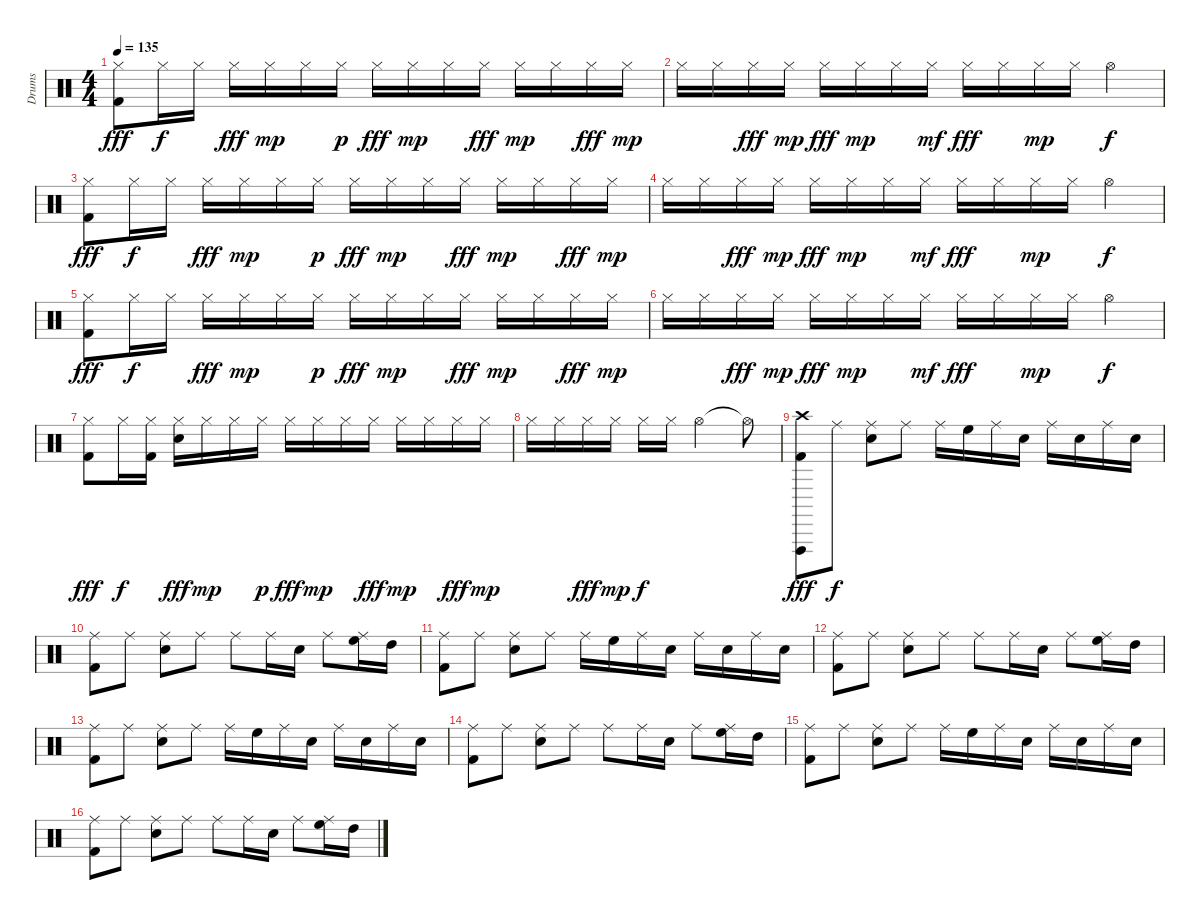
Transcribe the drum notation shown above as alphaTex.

\track ("Drums" "Drums") {instrument percussion}
\staff {score}
\articulation defaults
\ts (4 4)
\tempo 135
\clef neutral
\ks c
("Hi-Hat (closed)" "Kick (hit) 2").8{dy fff} "Hi-Hat (closed)".16{dy f} "Hi-Hat (closed)".16 "Hi-Hat (closed)".16{dy fff} "Hi-Hat (closed)".16{dy mp} "Hi-Hat (closed)".16 "Hi-Hat (closed)".16{dy p} "Hi-Hat (closed)".16{dy fff} "Hi-Hat (closed)".16{dy mp} "Hi-Hat (closed)".16 "Hi-Hat (closed)".16{dy fff} "Hi-Hat (closed)".16{dy mp} "Hi-Hat (closed)".16 "Hi-Hat (closed)".16{dy fff} "Hi-Hat (closed)".16{dy mp} |
"Hi-Hat (closed)".16 "Hi-Hat (closed)".16 "Hi-Hat (closed)".16{dy fff} "Hi-Hat (closed)".16{dy mp} "Hi-Hat (closed)".16{dy fff} "Hi-Hat (closed)".16{dy mp} "Hi-Hat (closed)".16 "Hi-Hat (closed)".16{dy mf} "Hi-Hat (closed)".16{dy fff} "Hi-Hat (closed)".16 "Hi-Hat (closed)".16{dy mp} "Hi-Hat (closed)".16 "Hi-Hat (open)".4{dy f} |
("Hi-Hat (closed)" "Kick (hit) 2").8{dy fff} "Hi-Hat (closed)".16{dy f} "Hi-Hat (closed)".16 "Hi-Hat (closed)".16{dy fff} "Hi-Hat (closed)".16{dy mp} "Hi-Hat (closed)".16 "Hi-Hat (closed)".16{dy p} "Hi-Hat (closed)".16{dy fff} "Hi-Hat (closed)".16{dy mp} "Hi-Hat (closed)".16 "Hi-Hat (closed)".16{dy fff} "Hi-Hat (closed)".16{dy mp} "Hi-Hat (closed)".16 "Hi-Hat (closed)".16{dy fff} "Hi-Hat (closed)".16{dy mp} |
"Hi-Hat (closed)".16 "Hi-Hat (closed)".16 "Hi-Hat (closed)".16{dy fff} "Hi-Hat (closed)".16{dy mp} "Hi-Hat (closed)".16{dy fff} "Hi-Hat (closed)".16{dy mp} "Hi-Hat (closed)".16 "Hi-Hat (closed)".16{dy mf} "Hi-Hat (closed)".16{dy fff} "Hi-Hat (closed)".16 "Hi-Hat (closed)".16{dy mp} "Hi-Hat (closed)".16 "Hi-Hat (open)".4{dy f} |
("Hi-Hat (closed)" "Kick (hit) 2").8{dy fff} "Hi-Hat (closed)".16{dy f} "Hi-Hat (closed)".16 "Hi-Hat (closed)".16{dy fff} "Hi-Hat (closed)".16{dy mp} "Hi-Hat (closed)".16 "Hi-Hat (closed)".16{dy p} "Hi-Hat (closed)".16{dy fff} "Hi-Hat (closed)".16{dy mp} "Hi-Hat (closed)".16 "Hi-Hat (closed)".16{dy fff} "Hi-Hat (closed)".16{dy mp} "Hi-Hat (closed)".16 "Hi-Hat (closed)".16{dy fff} "Hi-Hat (closed)".16{dy mp} |
"Hi-Hat (closed)".16 "Hi-Hat (closed)".16 "Hi-Hat (closed)".16{dy fff} "Hi-Hat (closed)".16{dy mp} "Hi-Hat (closed)".16{dy fff} "Hi-Hat (closed)".16{dy mp} "Hi-Hat (closed)".16 "Hi-Hat (closed)".16{dy mf} "Hi-Hat (closed)".16{dy fff} "Hi-Hat (closed)".16 "Hi-Hat (closed)".16{dy mp} "Hi-Hat (closed)".16 "Hi-Hat (open)".4{dy f} |
("Hi-Hat (closed)" "Kick (hit) 2").8{dy fff} "Hi-Hat (closed)".16{dy f} ("Hi-Hat (closed)" "Kick (hit) 2").16 ("Hi-Hat (closed)" "Electric Snare (hit)").16{dy fff} "Hi-Hat (closed)".16{dy mp} "Hi-Hat (closed)".16 "Hi-Hat (closed)".16{dy p} "Hi-Hat (closed)".16{dy fff} "Hi-Hat (closed)".16{dy mp} "Hi-Hat (closed)".16 "Hi-Hat (closed)".16{dy fff} "Hi-Hat (closed)".16{dy mp} "Hi-Hat (closed)".16 "Hi-Hat (closed)".16{dy fff} "Hi-Hat (closed)".16{dy mp} |
"Hi-Hat (closed)".16 "Hi-Hat (closed)".16 "Hi-Hat (closed)".16{dy fff} "Hi-Hat (closed)".16{dy mp} "Hi-Hat (closed)".16{dy f} "Hi-Hat (closed)".16 "Hi-Hat (open)".2 "Hi-Hat (open)"{t}.8 |
("Vibraslap (hit)" "Crash high (hit)" "Kick (hit) 2").8{dy fff} "Ride (middle)".8{dy f} ("Ride (middle)" "Electric Snare (hit)").8 "Ride (middle)".8 "Ride (middle)".16 "High Floor Tom (hit)".16 "Ride (middle)".16 "Electric Snare (hit)".16 "Ride (middle)".16 "Electric Snare (hit)".16 "Ride (middle)".16 "Electric Snare (hit)".16 |
("Ride (middle)" "Kick (hit) 2").8 "Ride (middle)".8 ("Ride (middle)" "Electric Snare (hit)").8 "Ride (middle)".8 "Ride (middle)".8 "Ride (middle)".16 "Electric Snare (hit)".16 "Ride (middle)".8 ("Ride (middle)" "High Floor Tom (hit)").16 "High Tom (hit)".16 |
("Ride (middle)" "Kick (hit) 2").8 "Ride (middle)".8 ("Ride (middle)" "Electric Snare (hit)").8 "Ride (middle)".8 "Ride (middle)".16 "High Floor Tom (hit)".16 "Ride (middle)".16 "Electric Snare (hit)".16 "Ride (middle)".16 "Electric Snare (hit)".16 "Ride (middle)".16 "Electric Snare (hit)".16 |
("Ride (middle)" "Kick (hit) 2").8 "Ride (middle)".8 ("Ride (middle)" "Electric Snare (hit)").8 "Ride (middle)".8 "Ride (middle)".8 "Ride (middle)".16 "Electric Snare (hit)".16 "Ride (middle)".8 ("Ride (middle)" "High Floor Tom (hit)").16 "High Tom (hit)".16 |
("Ride (middle)" "Kick (hit) 2").8 "Ride (middle)".8 ("Ride (middle)" "Electric Snare (hit)").8 "Ride (middle)".8 "Ride (middle)".16 "High Floor Tom (hit)".16 "Ride (middle)".16 "Electric Snare (hit)".16 "Ride (middle)".16 "Electric Snare (hit)".16 "Ride (middle)".16 "Electric Snare (hit)".16 |
("Ride (middle)" "Kick (hit) 2").8 "Ride (middle)".8 ("Ride (middle)" "Electric Snare (hit)").8 "Ride (middle)".8 "Ride (middle)".8 "Ride (middle)".16 "Electric Snare (hit)".16 "Ride (middle)".8 ("Ride (middle)" "High Floor Tom (hit)").16 "High Tom (hit)".16 |
("Ride (middle)" "Kick (hit) 2").8 "Ride (middle)".8 ("Ride (middle)" "Electric Snare (hit)").8 "Ride (middle)".8 "Ride (middle)".16 "High Floor Tom (hit)".16 "Ride (middle)".16 "Electric Snare (hit)".16 "Ride (middle)".16 "Electric Snare (hit)".16 "Ride (middle)".16 "Electric Snare (hit)".16 |
("Ride (middle)" "Kick (hit) 2").8 "Ride (middle)".8 ("Ride (middle)" "Electric Snare (hit)").8 "Ride (middle)".8 "Ride (middle)".8 "Ride (middle)".16 "Electric Snare (hit)".16 "Ride (middle)".8 ("Ride (middle)" "High Floor Tom (hit)").16 "High Tom (hit)".16
